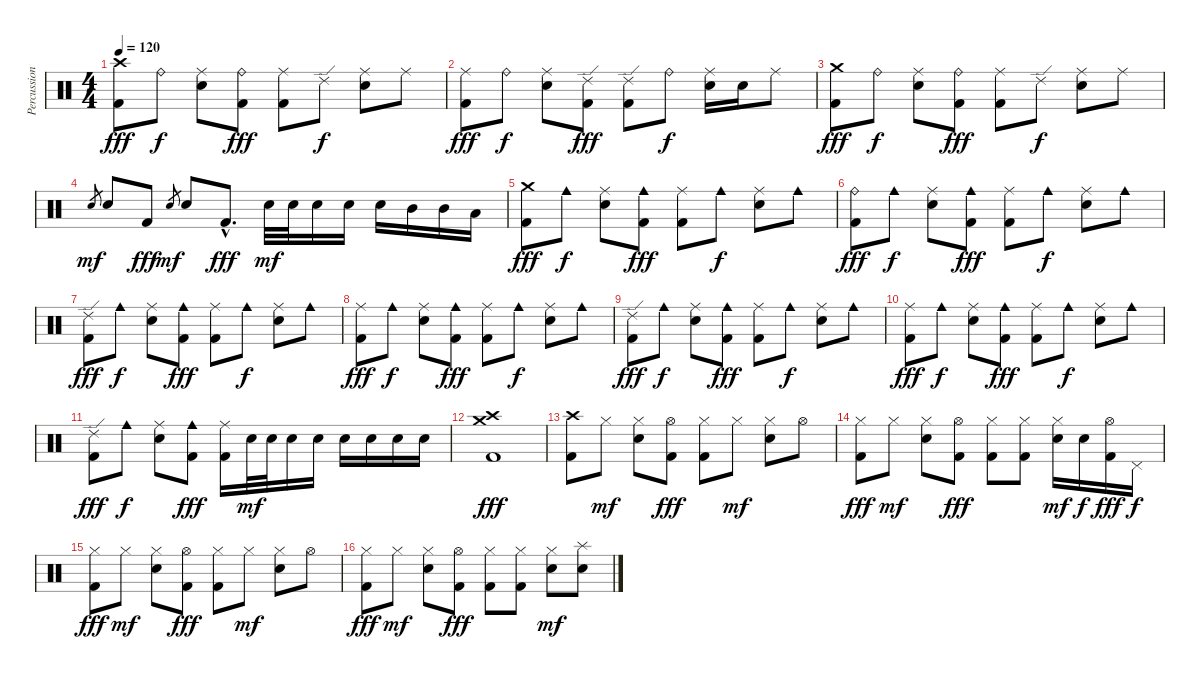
\track ("Percussion" "Percussion") {instrument percussion}
\staff {score}
\articulation defaults
\ts (4 4)
\tempo 120
\clef neutral
\ks c
("Crash high (hit)" "Kick (hit) 2").8{dy fff} "Ride (bell)".8{dy f} ("Ride (middle)" "Electric Snare (hit)").8 ("Ride (bell)" "Kick (hit) 2").8{dy fff} ("Ride (middle)" "Kick (hit) 2").8 "Ride (edge) 2".8{dy f} ("Ride (middle)" "Electric Snare (hit)").8 "Ride (middle)".8 |
("Ride (middle)" "Kick (hit) 2").8{dy fff} "Ride (bell)".8{dy f} ("Ride (middle)" "Electric Snare (hit)").8 ("Ride (edge) 2" "Kick (hit) 2").8{dy fff} ("Ride (edge) 2" "Kick (hit) 2").8 "Ride (bell)".8{dy f} ("Ride (middle)" "Electric Snare (hit)").16 "Electric Snare (hit)".16 "Ride (middle)".8 |
("Crash medium (hit)" "Kick (hit) 2").8{dy fff} "Ride (bell)".8{dy f} ("Ride (middle)" "Electric Snare (hit)").8 ("Ride (bell)" "Kick (hit) 2").8{dy fff} ("Ride (middle)" "Kick (hit) 2").8 "Ride (edge) 2".8{dy f} ("Ride (middle)" "Electric Snare (hit)").8 "Ride (middle)".8 |
"Electric Snare (hit)".8{gr dy mf} "Electric Snare (hit)".8 "Kick (hit) 2".8{dy fff} "Electric Snare (hit)".8{gr dy mf} "Electric Snare (hit)".8 "Kick (hit) 2"{hac}.8{d dy fff} "Electric Snare (hit)".32{dy mf} "Electric Snare (hit)".32 "Electric Snare (hit)".16 "Electric Snare (hit)".16 "Electric Snare (hit)".16 "Mid Tom (hit)".16 "Mid Tom (hit)".16 "Low Tom (hit)".16 |
("Crash medium (hit)" "Kick (hit) 2").8{dy fff} "Cowbell medium (hit)".8{dy f} ("Ride (middle)" "Electric Snare (hit)").8 ("Cowbell medium (hit)" "Kick (hit) 2").8{dy fff} ("Ride (middle)" "Kick (hit) 2").8 "Cowbell medium (hit)".8{dy f} ("Ride (middle)" "Electric Snare (hit)").8 "Cowbell medium (hit)".8 |
("Ride (bell)" "Kick (hit) 2").8{dy fff} "Cowbell medium (hit)".8{dy f} ("Ride (middle)" "Electric Snare (hit)").8 ("Cowbell medium (hit)" "Kick (hit) 2").8{dy fff} ("Ride (middle)" "Kick (hit) 2").8 "Cowbell medium (hit)".8{dy f} ("Ride (middle)" "Electric Snare (hit)").8 "Cowbell medium (hit)".8 |
("Ride (edge) 2" "Kick (hit) 2").8{dy fff} "Cowbell medium (hit)".8{dy f} ("Ride (middle)" "Electric Snare (hit)").8 ("Cowbell medium (hit)" "Kick (hit) 2").8{dy fff} ("Ride (middle)" "Kick (hit) 2").8 "Cowbell medium (hit)".8{dy f} ("Ride (middle)" "Electric Snare (hit)").8 "Cowbell medium (hit)".8 |
("Ride (middle)" "Kick (hit) 2").8{dy fff} "Cowbell medium (hit)".8{dy f} ("Ride (middle)" "Electric Snare (hit)").8 ("Cowbell medium (hit)" "Kick (hit) 2").8{dy fff} ("Ride (middle)" "Kick (hit) 2").8 "Cowbell medium (hit)".8{dy f} ("Ride (middle)" "Electric Snare (hit)").8 "Cowbell medium (hit)".8 |
("Ride (edge) 2" "Kick (hit) 2").8{dy fff} "Cowbell medium (hit)".8{dy f} ("Ride (middle)" "Electric Snare (hit)").8 ("Cowbell medium (hit)" "Kick (hit) 2").8{dy fff} ("Ride (middle)" "Kick (hit) 2").8 "Cowbell medium (hit)".8{dy f} ("Ride (middle)" "Electric Snare (hit)").8 "Cowbell medium (hit)".8 |
("Ride (middle)" "Kick (hit) 2").8{dy fff} "Cowbell medium (hit)".8{dy f} ("Ride (middle)" "Electric Snare (hit)").8 ("Cowbell medium (hit)" "Kick (hit) 2").8{dy fff} ("Ride (middle)" "Kick (hit) 2").8 "Cowbell medium (hit)".8{dy f} ("Ride (middle)" "Electric Snare (hit)").8 "Cowbell medium (hit)".8 |
("Ride (edge) 2" "Kick (hit) 2").8{dy fff} "Cowbell medium (hit)".8{dy f} ("Ride (middle)" "Electric Snare (hit)").8 ("Cowbell medium (hit)" "Kick (hit) 2").8{dy fff} ("Ride (middle)" "Kick (hit) 2").16 "Electric Snare (hit)".32{dy mf} "Electric Snare (hit)".32 "Electric Snare (hit)".16 "Electric Snare (hit)".16 "Electric Snare (hit)".16 "Electric Snare (hit)".16 "Electric Snare (hit)".16 "Electric Snare (hit)".16 |
("Crash high (hit)" "Crash medium (hit)" "Kick (hit) 2").1{dy fff} |
("Crash high (hit)" "Kick (hit) 2").8 "Hi-Hat (closed)".8{dy mf} ("Hi-Hat (closed)" "Electric Snare (hit)").8 ("Hi-Hat (open)" "Kick (hit) 2").8{dy fff} ("Hi-Hat (closed)" "Kick (hit) 2").8 "Hi-Hat (closed)".8{dy mf} ("Hi-Hat (closed)" "Electric Snare (hit)").8 "Hi-Hat (open)".8 |
("Hi-Hat (closed)" "Kick (hit) 2").8{dy fff} "Hi-Hat (closed)".8{dy mf} ("Hi-Hat (closed)" "Electric Snare (hit)").8 ("Hi-Hat (open)" "Kick (hit) 2").8{dy fff} ("Hi-Hat (closed)" "Kick (hit) 2").8 ("Hi-Hat (closed)" "Kick (hit) 2").8 ("Hi-Hat (closed)" "Electric Snare (hit)").16{dy mf} "Electric Snare (hit)".16{dy f} ("Hi-Hat (open)" "Kick (hit) 2").16{dy fff} "Pedal Hi-Hat (hit)".16{dy f} |
("Hi-Hat (closed)" "Kick (hit) 2").8{dy fff} "Hi-Hat (closed)".8{dy mf} ("Hi-Hat (closed)" "Electric Snare (hit)").8 ("Hi-Hat (open)" "Kick (hit) 2").8{dy fff} ("Hi-Hat (closed)" "Kick (hit) 2").8 "Hi-Hat (closed)".8{dy mf} ("Hi-Hat (closed)" "Electric Snare (hit)").8 "Hi-Hat (open)".8 |
("Hi-Hat (closed)" "Kick (hit) 2").8{dy fff} "Hi-Hat (closed)".8{dy mf} ("Hi-Hat (closed)" "Electric Snare (hit)").8 ("Hi-Hat (open)" "Kick (hit) 2").8{dy fff} ("Hi-Hat (closed)" "Kick (hit) 2").8 ("Hi-Hat (closed)" "Kick (hit) 2").8 ("Hi-Hat (closed)" "Electric Snare (hit)").8{dy mf} ("Splash (hit)" "Electric Snare (hit)").8
